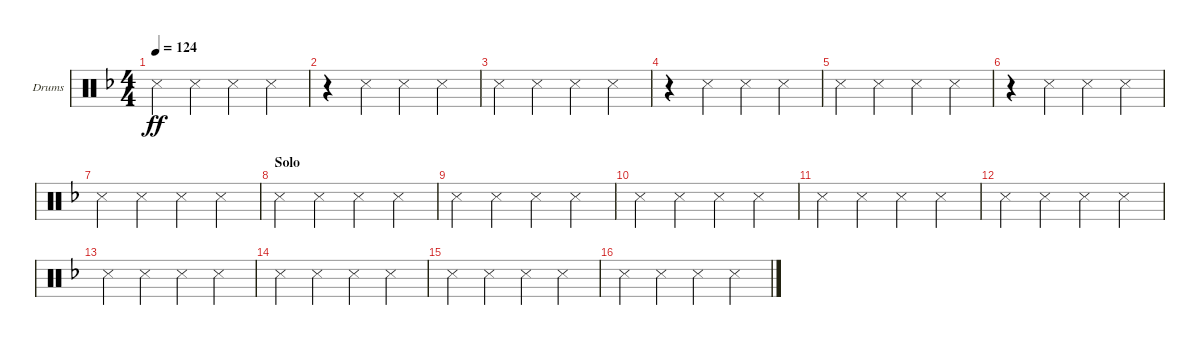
\bracketExtendMode groupsimilarinstruments
\firstSystemTrackNameOrientation horizontal
\otherSystemsTrackNameOrientation horizontal
\track ("Sidestick Clave Pattern" "Drums") {instrument percussion}
\staff {score}
\articulation defaults
\ts (4 4)
\tempo 124
\clef neutral
\scale
0.333333
\ks dminor "Snare (side stick) 3".4{dy ff} "Snare (side stick) 3".4 "Snare (side stick) 3".4 "Snare (side stick) 3".4
|
\scale
0.333333 r.4 "Snare (side stick) 3".4 "Snare (side stick) 3".4 "Snare (side stick) 3".4 |
\scale
0.333333 "Snare (side stick) 3".4 "Snare (side stick) 3".4 "Snare (side stick) 3".4 "Snare (side stick) 3".4 |
\scale
0.333333 r.4 "Snare (side stick) 3".4 "Snare (side stick) 3".4 "Snare (side stick) 3".4 |
\scale
0.333333 "Snare (side stick) 3".4 "Snare (side stick) 3".4 "Snare (side stick) 3".4 "Snare (side stick) 3".4 |
\scale
0.333333 r.4 "Snare (side stick) 3".4 "Snare (side stick) 3".4 "Snare (side stick) 3".4 |
\scale
0.333333 "Snare (side stick) 3".4 "Snare (side stick) 3".4 "Snare (side stick) 3".4 "Snare (side stick) 3".4 |
\section ("" "Solo")
\scale
0.333333 "Snare (side stick) 3".4 "Snare (side stick) 3".4 "Snare (side stick) 3".4 "Snare (side stick) 3".4 |
\scale
0.333333 "Snare (side stick) 3".4 "Snare (side stick) 3".4 "Snare (side stick) 3".4 "Snare (side stick) 3".4 |
\scale
0.333333 "Snare (side stick) 3".4 "Snare (side stick) 3".4 "Snare (side stick) 3".4 "Snare (side stick) 3".4 |
\scale
0.333333 "Snare (side stick) 3".4 "Snare (side stick) 3".4 "Snare (side stick) 3".4 "Snare (side stick) 3".4 |
\scale
0.333333 "Snare (side stick) 3".4 "Snare (side stick) 3".4 "Snare (side stick) 3".4 "Snare (side stick) 3".4 |
\scale
0.333333 "Snare (side stick) 3".4 "Snare (side stick) 3".4 "Snare (side stick) 3".4 "Snare (side stick) 3".4 |
\scale
0.333333 "Snare (side stick) 3".4 "Snare (side stick) 3".4 "Snare (side stick) 3".4 "Snare (side stick) 3".4 |
\scale
0.333333 "Snare (side stick) 3".4 "Snare (side stick) 3".4 "Snare (side stick) 3".4 "Snare (side stick) 3".4 |
\scale
0.333333 "Snare (side stick) 3".4 "Snare (side stick) 3".4 "Snare (side stick) 3".4 "Snare (side stick) 3".4
